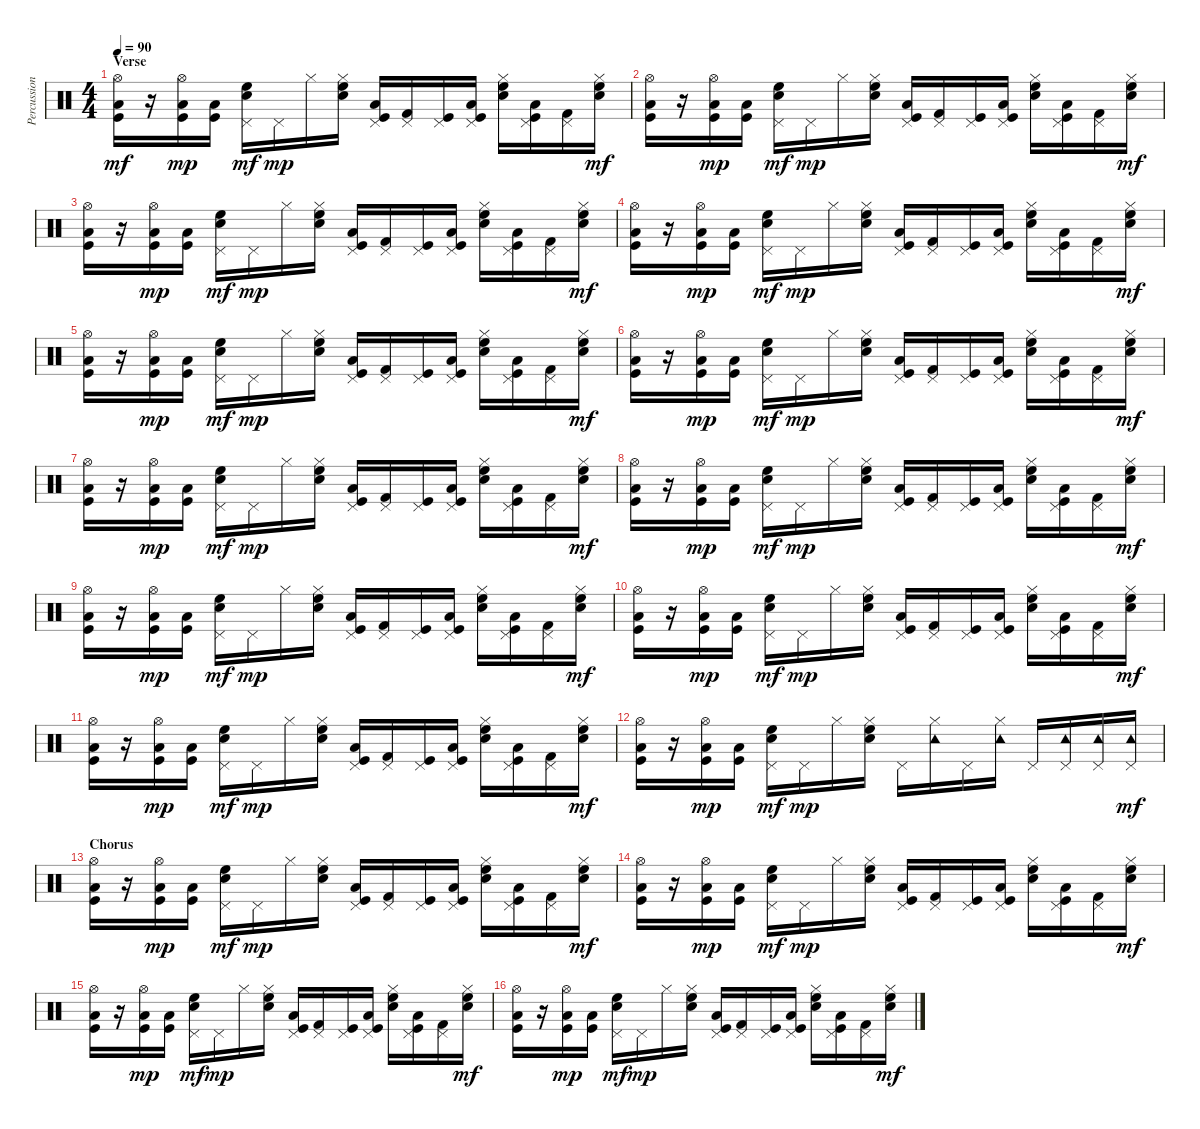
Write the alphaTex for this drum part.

\track ("Percussion" "Percussion") {instrument percussion}
\staff {score}
\articulation defaults
\ts (4 4)
\section ("" "Verse")
\tempo 90
\clef neutral
\ks c
("Kick (hit)" "Low Tom (hit)" "Hi-Hat (open)").16{dy mf} r.16 ("Kick (hit)" "Low Tom (hit)" "Hi-Hat (open)").16{dy mp} ("Kick (hit)" "Low Tom (hit)").16 ("Snare (hit) 2" "High Floor Tom (hit)" "Pedal Hi-Hat (hit)").16{dy mf} "Pedal Hi-Hat (hit)".16{dy mp} "Hi-Hat (closed)".16 ("Snare (hit) 2" "High Floor Tom (hit)" "Hi-Hat (closed)").16 ("Kick (hit)" "Low Tom (hit)" "Pedal Hi-Hat (hit)").16 ("Kick (hit) 2" "Pedal Hi-Hat (hit)").16 ("Kick (hit)" "Pedal Hi-Hat (hit)").16 ("Kick (hit)" "Low Tom (hit)" "Pedal Hi-Hat (hit)").16 ("Snare (hit) 2" "High Floor Tom (hit)" "Hi-Hat (closed)").16 ("Kick (hit)" "Low Tom (hit)" "Pedal Hi-Hat (hit)").16 ("Kick (hit) 2" "Pedal Hi-Hat (hit)").16 ("Snare (hit) 2" "High Floor Tom (hit)" "Hi-Hat (closed)").16{dy mf} |
("Kick (hit)" "Low Tom (hit)" "Hi-Hat (open)").16 r.16 ("Kick (hit)" "Low Tom (hit)" "Hi-Hat (open)").16{dy mp} ("Kick (hit)" "Low Tom (hit)").16 ("Snare (hit) 2" "High Floor Tom (hit)" "Pedal Hi-Hat (hit)").16{dy mf} "Pedal Hi-Hat (hit)".16{dy mp} "Hi-Hat (closed)".16 ("Snare (hit) 2" "High Floor Tom (hit)" "Hi-Hat (closed)").16 ("Kick (hit)" "Low Tom (hit)" "Pedal Hi-Hat (hit)").16 ("Kick (hit) 2" "Pedal Hi-Hat (hit)").16 ("Kick (hit)" "Pedal Hi-Hat (hit)").16 ("Kick (hit)" "Low Tom (hit)" "Pedal Hi-Hat (hit)").16 ("Snare (hit) 2" "High Floor Tom (hit)" "Hi-Hat (closed)").16 ("Kick (hit)" "Low Tom (hit)" "Pedal Hi-Hat (hit)").16 ("Kick (hit) 2" "Pedal Hi-Hat (hit)").16 ("Snare (hit) 2" "High Floor Tom (hit)" "Hi-Hat (closed)").16{dy mf} |
("Kick (hit)" "Low Tom (hit)" "Hi-Hat (open)").16 r.16 ("Kick (hit)" "Low Tom (hit)" "Hi-Hat (open)").16{dy mp} ("Kick (hit)" "Low Tom (hit)").16 ("Snare (hit) 2" "High Floor Tom (hit)" "Pedal Hi-Hat (hit)").16{dy mf} "Pedal Hi-Hat (hit)".16{dy mp} "Hi-Hat (closed)".16 ("Snare (hit) 2" "High Floor Tom (hit)" "Hi-Hat (closed)").16 ("Kick (hit)" "Low Tom (hit)" "Pedal Hi-Hat (hit)").16 ("Kick (hit) 2" "Pedal Hi-Hat (hit)").16 ("Kick (hit)" "Pedal Hi-Hat (hit)").16 ("Kick (hit)" "Low Tom (hit)" "Pedal Hi-Hat (hit)").16 ("Snare (hit) 2" "High Floor Tom (hit)" "Hi-Hat (closed)").16 ("Kick (hit)" "Low Tom (hit)" "Pedal Hi-Hat (hit)").16 ("Kick (hit) 2" "Pedal Hi-Hat (hit)").16 ("Snare (hit) 2" "High Floor Tom (hit)" "Hi-Hat (closed)").16{dy mf} |
("Kick (hit)" "Low Tom (hit)" "Hi-Hat (open)").16 r.16 ("Kick (hit)" "Low Tom (hit)" "Hi-Hat (open)").16{dy mp} ("Kick (hit)" "Low Tom (hit)").16 ("Snare (hit) 2" "High Floor Tom (hit)" "Pedal Hi-Hat (hit)").16{dy mf} "Pedal Hi-Hat (hit)".16{dy mp} "Hi-Hat (closed)".16 ("Snare (hit) 2" "High Floor Tom (hit)" "Hi-Hat (closed)").16 ("Kick (hit)" "Low Tom (hit)" "Pedal Hi-Hat (hit)").16 ("Kick (hit) 2" "Pedal Hi-Hat (hit)").16 ("Kick (hit)" "Pedal Hi-Hat (hit)").16 ("Kick (hit)" "Low Tom (hit)" "Pedal Hi-Hat (hit)").16 ("Snare (hit) 2" "High Floor Tom (hit)" "Hi-Hat (closed)").16 ("Kick (hit)" "Low Tom (hit)" "Pedal Hi-Hat (hit)").16 ("Kick (hit) 2" "Pedal Hi-Hat (hit)").16 ("Snare (hit) 2" "High Floor Tom (hit)" "Hi-Hat (closed)").16{dy mf} |
("Kick (hit)" "Low Tom (hit)" "Hi-Hat (open)").16 r.16 ("Kick (hit)" "Low Tom (hit)" "Hi-Hat (open)").16{dy mp} ("Kick (hit)" "Low Tom (hit)").16 ("Snare (hit) 2" "High Floor Tom (hit)" "Pedal Hi-Hat (hit)").16{dy mf} "Pedal Hi-Hat (hit)".16{dy mp} "Hi-Hat (closed)".16 ("Snare (hit) 2" "High Floor Tom (hit)" "Hi-Hat (closed)").16 ("Kick (hit)" "Low Tom (hit)" "Pedal Hi-Hat (hit)").16 ("Kick (hit) 2" "Pedal Hi-Hat (hit)").16 ("Kick (hit)" "Pedal Hi-Hat (hit)").16 ("Kick (hit)" "Low Tom (hit)" "Pedal Hi-Hat (hit)").16 ("Snare (hit) 2" "High Floor Tom (hit)" "Hi-Hat (closed)").16 ("Kick (hit)" "Low Tom (hit)" "Pedal Hi-Hat (hit)").16 ("Kick (hit) 2" "Pedal Hi-Hat (hit)").16 ("Snare (hit) 2" "High Floor Tom (hit)" "Hi-Hat (closed)").16{dy mf} |
("Kick (hit)" "Low Tom (hit)" "Hi-Hat (open)").16 r.16 ("Kick (hit)" "Low Tom (hit)" "Hi-Hat (open)").16{dy mp} ("Kick (hit)" "Low Tom (hit)").16 ("Snare (hit) 2" "High Floor Tom (hit)" "Pedal Hi-Hat (hit)").16{dy mf} "Pedal Hi-Hat (hit)".16{dy mp} "Hi-Hat (closed)".16 ("Snare (hit) 2" "High Floor Tom (hit)" "Hi-Hat (closed)").16 ("Kick (hit)" "Low Tom (hit)" "Pedal Hi-Hat (hit)").16 ("Kick (hit) 2" "Pedal Hi-Hat (hit)").16 ("Kick (hit)" "Pedal Hi-Hat (hit)").16 ("Kick (hit)" "Low Tom (hit)" "Pedal Hi-Hat (hit)").16 ("Snare (hit) 2" "High Floor Tom (hit)" "Hi-Hat (closed)").16 ("Kick (hit)" "Low Tom (hit)" "Pedal Hi-Hat (hit)").16 ("Kick (hit) 2" "Pedal Hi-Hat (hit)").16 ("Snare (hit) 2" "High Floor Tom (hit)" "Hi-Hat (closed)").16{dy mf} |
("Kick (hit)" "Low Tom (hit)" "Hi-Hat (open)").16 r.16 ("Kick (hit)" "Low Tom (hit)" "Hi-Hat (open)").16{dy mp} ("Kick (hit)" "Low Tom (hit)").16 ("Snare (hit) 2" "High Floor Tom (hit)" "Pedal Hi-Hat (hit)").16{dy mf} "Pedal Hi-Hat (hit)".16{dy mp} "Hi-Hat (closed)".16 ("Snare (hit) 2" "High Floor Tom (hit)" "Hi-Hat (closed)").16 ("Kick (hit)" "Low Tom (hit)" "Pedal Hi-Hat (hit)").16 ("Kick (hit) 2" "Pedal Hi-Hat (hit)").16 ("Kick (hit)" "Pedal Hi-Hat (hit)").16 ("Kick (hit)" "Low Tom (hit)" "Pedal Hi-Hat (hit)").16 ("Snare (hit) 2" "High Floor Tom (hit)" "Hi-Hat (closed)").16 ("Kick (hit)" "Low Tom (hit)" "Pedal Hi-Hat (hit)").16 ("Kick (hit) 2" "Pedal Hi-Hat (hit)").16 ("Snare (hit) 2" "High Floor Tom (hit)" "Hi-Hat (closed)").16{dy mf} |
("Kick (hit)" "Low Tom (hit)" "Hi-Hat (open)").16 r.16 ("Kick (hit)" "Low Tom (hit)" "Hi-Hat (open)").16{dy mp} ("Kick (hit)" "Low Tom (hit)").16 ("Snare (hit) 2" "High Floor Tom (hit)" "Pedal Hi-Hat (hit)").16{dy mf} "Pedal Hi-Hat (hit)".16{dy mp} "Hi-Hat (closed)".16 ("Snare (hit) 2" "High Floor Tom (hit)" "Hi-Hat (closed)").16 ("Kick (hit)" "Low Tom (hit)" "Pedal Hi-Hat (hit)").16 ("Kick (hit) 2" "Pedal Hi-Hat (hit)").16 ("Kick (hit)" "Pedal Hi-Hat (hit)").16 ("Kick (hit)" "Low Tom (hit)" "Pedal Hi-Hat (hit)").16 ("Snare (hit) 2" "High Floor Tom (hit)" "Hi-Hat (closed)").16 ("Kick (hit)" "Low Tom (hit)" "Pedal Hi-Hat (hit)").16 ("Kick (hit) 2" "Pedal Hi-Hat (hit)").16 ("Snare (hit) 2" "High Floor Tom (hit)" "Hi-Hat (closed)").16{dy mf} |
("Kick (hit)" "Low Tom (hit)" "Hi-Hat (open)").16 r.16 ("Kick (hit)" "Low Tom (hit)" "Hi-Hat (open)").16{dy mp} ("Kick (hit)" "Low Tom (hit)").16 ("Snare (hit) 2" "High Floor Tom (hit)" "Pedal Hi-Hat (hit)").16{dy mf} "Pedal Hi-Hat (hit)".16{dy mp} "Hi-Hat (closed)".16 ("Snare (hit) 2" "High Floor Tom (hit)" "Hi-Hat (closed)").16 ("Kick (hit)" "Low Tom (hit)" "Pedal Hi-Hat (hit)").16 ("Kick (hit) 2" "Pedal Hi-Hat (hit)").16 ("Kick (hit)" "Pedal Hi-Hat (hit)").16 ("Kick (hit)" "Low Tom (hit)" "Pedal Hi-Hat (hit)").16 ("Snare (hit) 2" "High Floor Tom (hit)" "Hi-Hat (closed)").16 ("Kick (hit)" "Low Tom (hit)" "Pedal Hi-Hat (hit)").16 ("Kick (hit) 2" "Pedal Hi-Hat (hit)").16 ("Snare (hit) 2" "High Floor Tom (hit)" "Hi-Hat (closed)").16{dy mf} |
("Kick (hit)" "Low Tom (hit)" "Hi-Hat (open)").16 r.16 ("Kick (hit)" "Low Tom (hit)" "Hi-Hat (open)").16{dy mp} ("Kick (hit)" "Low Tom (hit)").16 ("Snare (hit) 2" "High Floor Tom (hit)" "Pedal Hi-Hat (hit)").16{dy mf} "Pedal Hi-Hat (hit)".16{dy mp} "Hi-Hat (closed)".16 ("Snare (hit) 2" "High Floor Tom (hit)" "Hi-Hat (closed)").16 ("Kick (hit)" "Low Tom (hit)" "Pedal Hi-Hat (hit)").16 ("Kick (hit) 2" "Pedal Hi-Hat (hit)").16 ("Kick (hit)" "Pedal Hi-Hat (hit)").16 ("Kick (hit)" "Low Tom (hit)" "Pedal Hi-Hat (hit)").16 ("Snare (hit) 2" "High Floor Tom (hit)" "Hi-Hat (closed)").16 ("Kick (hit)" "Low Tom (hit)" "Pedal Hi-Hat (hit)").16 ("Kick (hit) 2" "Pedal Hi-Hat (hit)").16 ("Snare (hit) 2" "High Floor Tom (hit)" "Hi-Hat (closed)").16{dy mf} |
("Kick (hit)" "Low Tom (hit)" "Hi-Hat (open)").16 r.16 ("Kick (hit)" "Low Tom (hit)" "Hi-Hat (open)").16{dy mp} ("Kick (hit)" "Low Tom (hit)").16 ("Snare (hit) 2" "High Floor Tom (hit)" "Pedal Hi-Hat (hit)").16{dy mf} "Pedal Hi-Hat (hit)".16{dy mp} "Hi-Hat (closed)".16 ("Snare (hit) 2" "High Floor Tom (hit)" "Hi-Hat (closed)").16 ("Kick (hit)" "Low Tom (hit)" "Pedal Hi-Hat (hit)").16 ("Kick (hit) 2" "Pedal Hi-Hat (hit)").16 ("Kick (hit)" "Pedal Hi-Hat (hit)").16 ("Kick (hit)" "Low Tom (hit)" "Pedal Hi-Hat (hit)").16 ("Snare (hit) 2" "High Floor Tom (hit)" "Hi-Hat (closed)").16 ("Kick (hit)" "Low Tom (hit)" "Pedal Hi-Hat (hit)").16 ("Kick (hit) 2" "Pedal Hi-Hat (hit)").16 ("Snare (hit) 2" "High Floor Tom (hit)" "Hi-Hat (closed)").16{dy mf} |
("Kick (hit)" "Low Tom (hit)" "Hi-Hat (open)").16 r.16 ("Kick (hit)" "Low Tom (hit)" "Hi-Hat (open)").16{dy mp} ("Kick (hit)" "Low Tom (hit)").16 ("Snare (hit) 2" "High Floor Tom (hit)" "Pedal Hi-Hat (hit)").16{dy mf} "Pedal Hi-Hat (hit)".16{dy mp} "Hi-Hat (closed)".16 ("Snare (hit) 2" "High Floor Tom (hit)" "Hi-Hat (closed)").16 "Pedal Hi-Hat (hit)".16 ("Tambourine (hit)" "Hi-Hat (closed)").16 "Pedal Hi-Hat (hit)".16 ("Tambourine (hit)" "Hi-Hat (closed)").16 "Pedal Hi-Hat (hit)".16 ("Tambourine (hit)" "Pedal Hi-Hat (hit)").16 ("Tambourine (hit)" "Pedal Hi-Hat (hit)").16 ("Tambourine (hit)" "Pedal Hi-Hat (hit)").16{dy mf} |
\section ("" "Chorus")
("Kick (hit)" "Low Tom (hit)" "Hi-Hat (open)").16 r.16 ("Kick (hit)" "Low Tom (hit)" "Hi-Hat (open)").16{dy mp} ("Kick (hit)" "Low Tom (hit)").16 ("Snare (hit) 2" "High Floor Tom (hit)" "Pedal Hi-Hat (hit)").16{dy mf} "Pedal Hi-Hat (hit)".16{dy mp} "Hi-Hat (closed)".16 ("Snare (hit) 2" "High Floor Tom (hit)" "Hi-Hat (closed)").16 ("Kick (hit)" "Low Tom (hit)" "Pedal Hi-Hat (hit)").16 ("Kick (hit) 2" "Pedal Hi-Hat (hit)").16 ("Kick (hit)" "Pedal Hi-Hat (hit)").16 ("Kick (hit)" "Low Tom (hit)" "Pedal Hi-Hat (hit)").16 ("Snare (hit) 2" "High Floor Tom (hit)" "Hi-Hat (closed)").16 ("Kick (hit)" "Low Tom (hit)" "Pedal Hi-Hat (hit)").16 ("Kick (hit) 2" "Pedal Hi-Hat (hit)").16 ("Snare (hit) 2" "High Floor Tom (hit)" "Hi-Hat (closed)").16{dy mf} |
("Kick (hit)" "Low Tom (hit)" "Hi-Hat (open)").16 r.16 ("Kick (hit)" "Low Tom (hit)" "Hi-Hat (open)").16{dy mp} ("Kick (hit)" "Low Tom (hit)").16 ("Snare (hit) 2" "High Floor Tom (hit)" "Pedal Hi-Hat (hit)").16{dy mf} "Pedal Hi-Hat (hit)".16{dy mp} "Hi-Hat (closed)".16 ("Snare (hit) 2" "High Floor Tom (hit)" "Hi-Hat (closed)").16 ("Kick (hit)" "Low Tom (hit)" "Pedal Hi-Hat (hit)").16 ("Kick (hit) 2" "Pedal Hi-Hat (hit)").16 ("Kick (hit)" "Pedal Hi-Hat (hit)").16 ("Kick (hit)" "Low Tom (hit)" "Pedal Hi-Hat (hit)").16 ("Snare (hit) 2" "High Floor Tom (hit)" "Hi-Hat (closed)").16 ("Kick (hit)" "Low Tom (hit)" "Pedal Hi-Hat (hit)").16 ("Kick (hit) 2" "Pedal Hi-Hat (hit)").16 ("Snare (hit) 2" "High Floor Tom (hit)" "Hi-Hat (closed)").16{dy mf} |
("Kick (hit)" "Low Tom (hit)" "Hi-Hat (open)").16 r.16 ("Kick (hit)" "Low Tom (hit)" "Hi-Hat (open)").16{dy mp} ("Kick (hit)" "Low Tom (hit)").16 ("Snare (hit) 2" "High Floor Tom (hit)" "Pedal Hi-Hat (hit)").16{dy mf} "Pedal Hi-Hat (hit)".16{dy mp} "Hi-Hat (closed)".16 ("Snare (hit) 2" "High Floor Tom (hit)" "Hi-Hat (closed)").16 ("Kick (hit)" "Low Tom (hit)" "Pedal Hi-Hat (hit)").16 ("Kick (hit) 2" "Pedal Hi-Hat (hit)").16 ("Kick (hit)" "Pedal Hi-Hat (hit)").16 ("Kick (hit)" "Low Tom (hit)" "Pedal Hi-Hat (hit)").16 ("Snare (hit) 2" "High Floor Tom (hit)" "Hi-Hat (closed)").16 ("Kick (hit)" "Low Tom (hit)" "Pedal Hi-Hat (hit)").16 ("Kick (hit) 2" "Pedal Hi-Hat (hit)").16 ("Snare (hit) 2" "High Floor Tom (hit)" "Hi-Hat (closed)").16{dy mf} |
("Kick (hit)" "Low Tom (hit)" "Hi-Hat (open)").16 r.16 ("Kick (hit)" "Low Tom (hit)" "Hi-Hat (open)").16{dy mp} ("Kick (hit)" "Low Tom (hit)").16 ("Snare (hit) 2" "High Floor Tom (hit)" "Pedal Hi-Hat (hit)").16{dy mf} "Pedal Hi-Hat (hit)".16{dy mp} "Hi-Hat (closed)".16 ("Snare (hit) 2" "High Floor Tom (hit)" "Hi-Hat (closed)").16 ("Kick (hit)" "Low Tom (hit)" "Pedal Hi-Hat (hit)").16 ("Kick (hit) 2" "Pedal Hi-Hat (hit)").16 ("Kick (hit)" "Pedal Hi-Hat (hit)").16 ("Kick (hit)" "Low Tom (hit)" "Pedal Hi-Hat (hit)").16 ("Snare (hit) 2" "High Floor Tom (hit)" "Hi-Hat (closed)").16 ("Kick (hit)" "Low Tom (hit)" "Pedal Hi-Hat (hit)").16 ("Kick (hit) 2" "Pedal Hi-Hat (hit)").16 ("Snare (hit) 2" "High Floor Tom (hit)" "Hi-Hat (closed)").16{dy mf}
